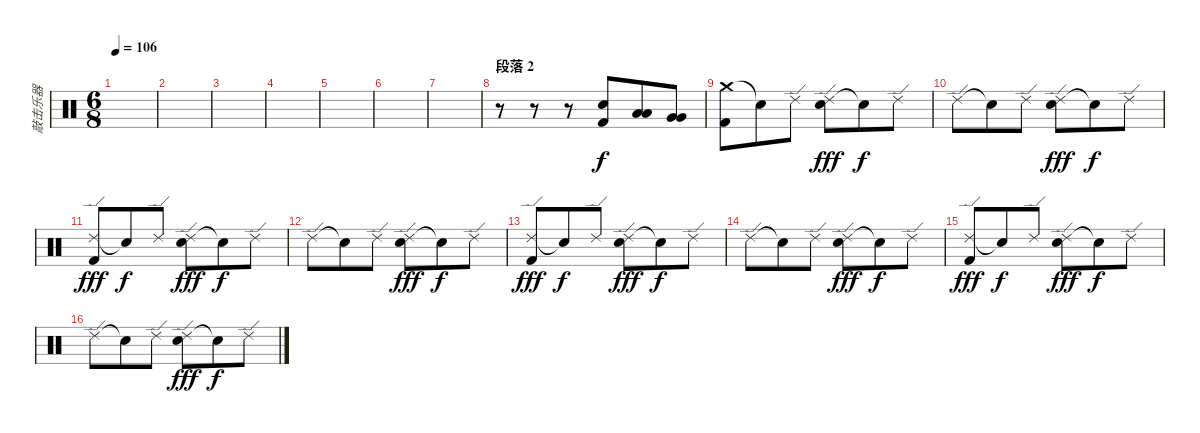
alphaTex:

\track ("敲击乐器" "敲击乐器") {instrument percussion}
\staff {score}
\articulation defaults
\ts (6 8)
\tempo 106
\clef neutral
\ks c
|
|
|
|
|
|
|
\section ("" "段落 2")
r.8 r.8 r.8 ("Snare (hit) 2" "Kick (hit) 2").8 ("Low Tom (hit)" "Low Tom (hit)").8 ("Very Low Tom (hit)" "Very Low Tom (hit)").8 |
("Crash medium (hit)" "Kick (hit) 2").8 "Snare (hit)"{t}.8{dy f} "Ride (edge) 2".8 ("Ride (edge) 2" "Snare (hit) 2").8{dy fff} "Snare (hit)"{t}.8{dy f} "Ride (edge) 2".8 |
"Ride (edge) 2".8 "Snare (hit)"{t}.8 "Ride (edge) 2".8 ("Ride (edge) 2" "Snare (hit) 2").8{dy fff} "Snare (hit)"{t}.8{dy f} "Ride (edge) 2".8 |
("Ride (edge) 2" "Kick (hit) 2").8{dy fff} "Snare (hit)"{t}.8{dy f} "Ride (edge) 2".8 ("Ride (edge) 2" "Snare (hit) 2").8{dy fff} "Snare (hit)"{t}.8{dy f} "Ride (edge) 2".8 |
"Ride (edge) 2".8 "Snare (hit)"{t}.8 "Ride (edge) 2".8 ("Ride (edge) 2" "Snare (hit) 2").8{dy fff} "Snare (hit)"{t}.8{dy f} "Ride (edge) 2".8 |
("Ride (edge) 2" "Kick (hit) 2").8{dy fff} "Snare (hit)"{t}.8{dy f} "Ride (edge) 2".8 ("Ride (edge) 2" "Snare (hit) 2").8{dy fff} "Snare (hit)"{t}.8{dy f} "Ride (edge) 2".8 |
"Ride (edge) 2".8 "Snare (hit)"{t}.8 "Ride (edge) 2".8 ("Ride (edge) 2" "Snare (hit) 2").8{dy fff} "Snare (hit)"{t}.8{dy f} "Ride (edge) 2".8 |
("Ride (edge) 2" "Kick (hit) 2").8{dy fff} "Snare (hit)"{t}.8{dy f} "Ride (edge) 2".8 ("Ride (edge) 2" "Snare (hit) 2").8{dy fff} "Snare (hit)"{t}.8{dy f} "Ride (edge) 2".8 |
"Ride (edge) 2".8 "Snare (hit)"{t}.8 "Ride (edge) 2".8 ("Ride (edge) 2" "Snare (hit) 2").8{dy fff} "Snare (hit)"{t}.8{dy f} "Ride (edge) 2".8
